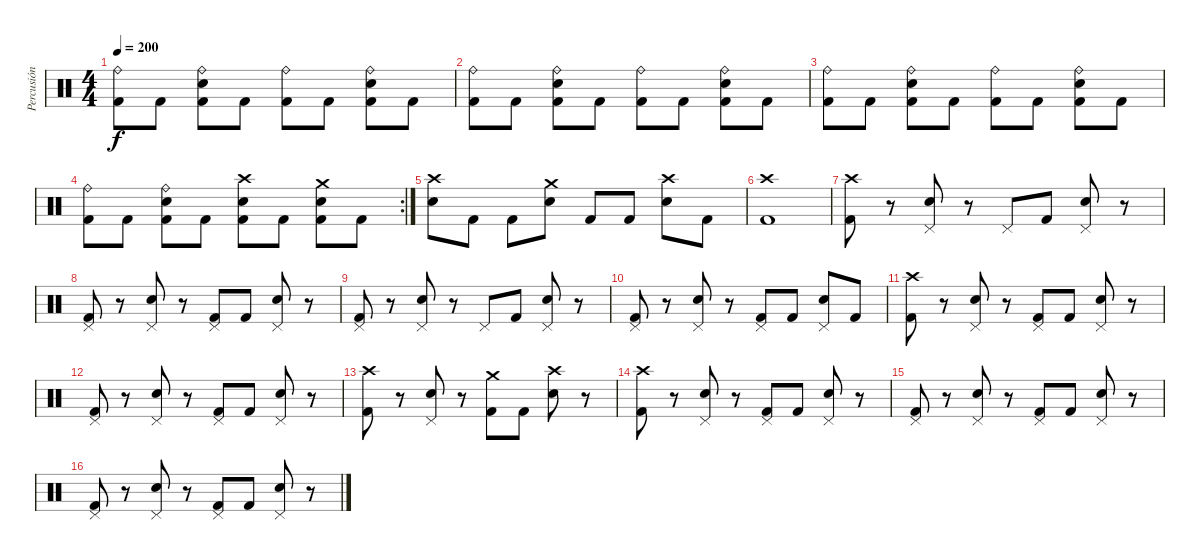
\track ("Percusión" "Percusión") {instrument percussion}
\staff {score}
\articulation defaults
\ts (4 4)
\tempo 200
\clef neutral
\ks c
("Ride (bell)" "Kick (hit) 2").8{dy f} "Kick (hit) 2".8 ("Ride (bell)" "Kick (hit) 2" "Electric Snare (hit)").8 "Kick (hit) 2".8 ("Ride (bell)" "Kick (hit) 2").8 "Kick (hit) 2".8 ("Ride (bell)" "Kick (hit) 2" "Electric Snare (hit)").8 "Kick (hit) 2".8 |
("Ride (bell)" "Kick (hit) 2").8 "Kick (hit) 2".8 ("Ride (bell)" "Kick (hit) 2" "Electric Snare (hit)").8 "Kick (hit) 2".8 ("Ride (bell)" "Kick (hit) 2").8 "Kick (hit) 2".8 ("Ride (bell)" "Kick (hit) 2" "Electric Snare (hit)").8 "Kick (hit) 2".8 |
("Ride (bell)" "Kick (hit) 2").8 "Kick (hit) 2".8 ("Ride (bell)" "Kick (hit) 2" "Electric Snare (hit)").8 "Kick (hit) 2".8 ("Ride (bell)" "Kick (hit) 2").8 "Kick (hit) 2".8 ("Ride (bell)" "Kick (hit) 2" "Electric Snare (hit)").8 "Kick (hit) 2".8 |
\rc 2
("Ride (bell)" "Kick (hit) 2").8 "Kick (hit) 2".8 ("Ride (bell)" "Kick (hit) 2" "Electric Snare (hit)").8 "Kick (hit) 2".8 ("Crash high (hit)" "Kick (hit) 2" "Electric Snare (hit)").8 "Kick (hit) 2".8 ("Crash medium (hit)" "Kick (hit) 2" "Electric Snare (hit)").8 "Kick (hit) 2".8 |
("Crash high (hit)" "Electric Snare (hit)").8 "Kick (hit) 2".8 "Kick (hit) 2".8 ("Crash medium (hit)" "Electric Snare (hit)").8 "Kick (hit) 2".8 "Kick (hit) 2".8 ("Crash high (hit)" "Electric Snare (hit)").8 "Kick (hit) 2".8 |
("Crash high (hit)" "Kick (hit) 2").1 |
("Crash high (hit)" "Kick (hit) 2").8 r.8 ("Pedal Hi-Hat (hit)" "Electric Snare (hit)").8 r.8 "Pedal Hi-Hat (hit)".8 "Kick (hit) 2".8 ("Pedal Hi-Hat (hit)" "Electric Snare (hit)").8 r.8 |
("Pedal Hi-Hat (hit)" "Kick (hit) 2").8 r.8 ("Pedal Hi-Hat (hit)" "Electric Snare (hit)").8 r.8 ("Pedal Hi-Hat (hit)" "Kick (hit) 2").8 "Kick (hit) 2".8 ("Pedal Hi-Hat (hit)" "Electric Snare (hit)").8 r.8 |
("Pedal Hi-Hat (hit)" "Kick (hit) 2").8 r.8 ("Pedal Hi-Hat (hit)" "Electric Snare (hit)").8 r.8 "Pedal Hi-Hat (hit)".8 "Kick (hit) 2".8 ("Pedal Hi-Hat (hit)" "Electric Snare (hit)").8 r.8 |
("Pedal Hi-Hat (hit)" "Kick (hit) 2").8 r.8 ("Pedal Hi-Hat (hit)" "Electric Snare (hit)").8 r.8 ("Pedal Hi-Hat (hit)" "Kick (hit) 2").8 "Kick (hit) 2".8 ("Pedal Hi-Hat (hit)" "Electric Snare (hit)").8 "Kick (hit) 2".8 |
("Crash high (hit)" "Kick (hit) 2").8 r.8 ("Pedal Hi-Hat (hit)" "Electric Snare (hit)").8 r.8 ("Pedal Hi-Hat (hit)" "Kick (hit) 2").8 "Kick (hit) 2".8 ("Pedal Hi-Hat (hit)" "Electric Snare (hit)").8 r.8 |
("Pedal Hi-Hat (hit)" "Kick (hit) 2").8 r.8 ("Pedal Hi-Hat (hit)" "Electric Snare (hit)").8 r.8 ("Pedal Hi-Hat (hit)" "Kick (hit) 2").8 "Kick (hit) 2".8 ("Pedal Hi-Hat (hit)" "Electric Snare (hit)").8 r.8 |
("Crash high (hit)" "Kick (hit) 2").8 r.8 ("Pedal Hi-Hat (hit)" "Electric Snare (hit)").8 r.8 ("Crash medium (hit)" "Kick (hit) 2").8 "Kick (hit) 2".8 ("Crash high (hit)" "Electric Snare (hit)").8 r.8 |
("Crash high (hit)" "Kick (hit) 2").8 r.8 ("Pedal Hi-Hat (hit)" "Electric Snare (hit)").8 r.8 ("Pedal Hi-Hat (hit)" "Kick (hit) 2").8 "Kick (hit) 2".8 ("Pedal Hi-Hat (hit)" "Electric Snare (hit)").8 r.8 |
("Pedal Hi-Hat (hit)" "Kick (hit) 2").8 r.8 ("Pedal Hi-Hat (hit)" "Electric Snare (hit)").8 r.8 ("Pedal Hi-Hat (hit)" "Kick (hit) 2").8 "Kick (hit) 2".8 ("Pedal Hi-Hat (hit)" "Electric Snare (hit)").8 r.8 |
("Pedal Hi-Hat (hit)" "Kick (hit) 2").8 r.8 ("Pedal Hi-Hat (hit)" "Electric Snare (hit)").8 r.8 ("Pedal Hi-Hat (hit)" "Kick (hit) 2").8 "Kick (hit) 2".8 ("Pedal Hi-Hat (hit)" "Electric Snare (hit)").8 r.8
